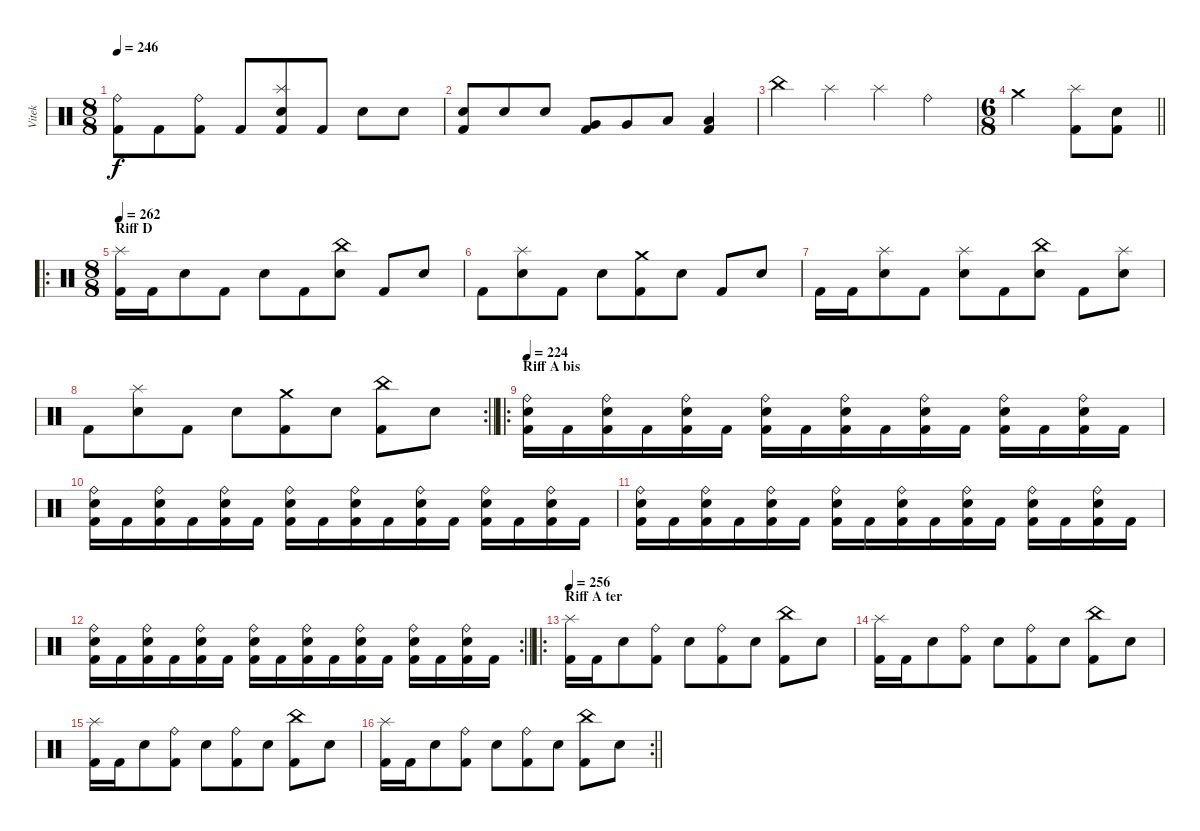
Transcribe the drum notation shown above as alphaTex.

\track ("Vitek" "Vitek") {instrument percussion}
\staff {score}
\articulation defaults
\ts (8 8)
\tempo 246
\clef neutral
\ks c
("Ride (bell)" "Kick (hit) 2").8{dy f} "Kick (hit) 2".8 ("Ride (bell)" "Kick (hit) 2").8 "Kick (hit) 2".8 ("Splash (hit)" "Electric Snare (hit)" "Kick (hit) 2").8 "Kick (hit) 2".8 "Electric Snare (hit)".8 "Electric Snare (hit)".8 |
("Electric Snare (hit)" "Kick (hit) 2").8 "Electric Snare (hit)".8 "Electric Snare (hit)".8 ("Very Low Tom (hit)" "Kick (hit) 2").8 "Very Low Tom (hit)".8 "Low Floor Tom (hit)".8 ("Low Floor Tom (hit)" "Kick (hit) 2").4 |
"China (hit)".4 "Splash (hit)".4 "Splash (hit)".4 "Ride (bell)".4 |
\ts (6 8)
\barLineRight lightlight "Crash medium (hit)".2
("Splash (hit)" "Kick (hit) 2").8 ("Electric Snare (hit)" "Kick (hit) 2").8 |
\ro
\ts (8 8)
\section ("" "Riff D")
\tempo 262
("Splash (hit)" "Kick (hit) 2").16 "Kick (hit) 2".16 "Electric Snare (hit)".8 "Kick (hit) 2".8 "Electric Snare (hit)".8 "Kick (hit) 2".8 ("China (hit)" "Electric Snare (hit)").8 "Kick (hit) 2".8 "Electric Snare (hit)".8 |
"Kick (hit) 2".8 ("Splash (hit)" "Electric Snare (hit)").8 "Kick (hit) 2".8 "Electric Snare (hit)".8 ("Crash medium (hit)" "Kick (hit) 2").8 "Electric Snare (hit)".8 "Kick (hit) 2".8 "Electric Snare (hit)".8 |
"Kick (hit) 2".16 "Kick (hit) 2".16 ("Splash (hit)" "Electric Snare (hit)").8 "Kick (hit) 2".8 ("Splash (hit)" "Electric Snare (hit)").8 "Kick (hit) 2".8 ("China (hit)" "Electric Snare (hit)").8 "Kick (hit) 2".8 ("Splash (hit)" "Electric Snare (hit)").8 |
\rc 2
\barLineRight lightlight "Kick (hit) 2".8
("Splash (hit)" "Electric Snare (hit)").8 "Kick (hit) 2".8 "Electric Snare (hit)".8 ("Crash medium (hit)" "Kick (hit) 2").8 "Electric Snare (hit)".8 ("China (hit)" "Kick (hit) 2").8 "Electric Snare (hit)".8 |
\ro
\section ("" "Riff A bis")
\tempo 224
("Ride (bell)" "Electric Snare (hit)" "Kick (hit) 2").16 "Kick (hit) 2".16 ("Ride (bell)" "Electric Snare (hit)" "Kick (hit) 2").16 "Kick (hit) 2".16 ("Ride (bell)" "Electric Snare (hit)" "Kick (hit) 2").16 "Kick (hit) 2".16 ("Ride (bell)" "Electric Snare (hit)" "Kick (hit) 2").16 "Kick (hit) 2".16 ("Ride (bell)" "Electric Snare (hit)" "Kick (hit) 2").16 "Kick (hit) 2".16 ("Ride (bell)" "Electric Snare (hit)" "Kick (hit) 2").16 "Kick (hit) 2".16 ("Ride (bell)" "Electric Snare (hit)" "Kick (hit) 2").16 "Kick (hit) 2".16 ("Ride (bell)" "Electric Snare (hit)" "Kick (hit) 2").16 "Kick (hit) 2".16 |
("Ride (bell)" "Electric Snare (hit)" "Kick (hit) 2").16 "Kick (hit) 2".16 ("Ride (bell)" "Electric Snare (hit)" "Kick (hit) 2").16 "Kick (hit) 2".16 ("Ride (bell)" "Electric Snare (hit)" "Kick (hit) 2").16 "Kick (hit) 2".16 ("Ride (bell)" "Electric Snare (hit)" "Kick (hit) 2").16 "Kick (hit) 2".16 ("Ride (bell)" "Electric Snare (hit)" "Kick (hit) 2").16 "Kick (hit) 2".16 ("Ride (bell)" "Electric Snare (hit)" "Kick (hit) 2").16 "Kick (hit) 2".16 ("Ride (bell)" "Electric Snare (hit)" "Kick (hit) 2").16 "Kick (hit) 2".16 ("Ride (bell)" "Electric Snare (hit)" "Kick (hit) 2").16 "Kick (hit) 2".16 |
("Ride (bell)" "Electric Snare (hit)" "Kick (hit) 2").16 "Kick (hit) 2".16 ("Ride (bell)" "Electric Snare (hit)" "Kick (hit) 2").16 "Kick (hit) 2".16 ("Ride (bell)" "Electric Snare (hit)" "Kick (hit) 2").16 "Kick (hit) 2".16 ("Ride (bell)" "Electric Snare (hit)" "Kick (hit) 2").16 "Kick (hit) 2".16 ("Ride (bell)" "Electric Snare (hit)" "Kick (hit) 2").16 "Kick (hit) 2".16 ("Ride (bell)" "Electric Snare (hit)" "Kick (hit) 2").16 "Kick (hit) 2".16 ("Ride (bell)" "Electric Snare (hit)" "Kick (hit) 2").16 "Kick (hit) 2".16 ("Ride (bell)" "Electric Snare (hit)" "Kick (hit) 2").16 "Kick (hit) 2".16 |
\rc 2
\barLineRight lightlight
("Ride (bell)" "Electric Snare (hit)" "Kick (hit) 2").16 "Kick (hit) 2".16 ("Ride (bell)" "Electric Snare (hit)" "Kick (hit) 2").16 "Kick (hit) 2".16 ("Ride (bell)" "Electric Snare (hit)" "Kick (hit) 2").16 "Kick (hit) 2".16 ("Ride (bell)" "Electric Snare (hit)" "Kick (hit) 2").16 "Kick (hit) 2".16 ("Ride (bell)" "Electric Snare (hit)" "Kick (hit) 2").16 "Kick (hit) 2".16 ("Ride (bell)" "Electric Snare (hit)" "Kick (hit) 2").16 "Kick (hit) 2".16 ("Ride (bell)" "Electric Snare (hit)" "Kick (hit) 2").16 "Kick (hit) 2".16 ("Ride (bell)" "Electric Snare (hit)" "Kick (hit) 2").16 "Kick (hit) 2".16 |
\ro
\section ("" "Riff A ter")
\tempo 256
("Splash (hit)" "Kick (hit) 2").16 "Kick (hit) 2".16 "Electric Snare (hit)".8 ("Ride (bell)" "Kick (hit) 2").8 "Electric Snare (hit)".8 ("Ride (bell)" "Kick (hit) 2").8 "Electric Snare (hit)".8 ("China (hit)" "Kick (hit) 2").8 "Electric Snare (hit)".8 |
("Splash (hit)" "Kick (hit) 2").16 "Kick (hit) 2".16 "Electric Snare (hit)".8 ("Ride (bell)" "Kick (hit) 2").8 "Electric Snare (hit)".8 ("Ride (bell)" "Kick (hit) 2").8 "Electric Snare (hit)".8 ("China (hit)" "Kick (hit) 2").8 "Electric Snare (hit)".8 |
("Splash (hit)" "Kick (hit) 2").16 "Kick (hit) 2".16 "Electric Snare (hit)".8 ("Ride (bell)" "Kick (hit) 2").8 "Electric Snare (hit)".8 ("Ride (bell)" "Kick (hit) 2").8 "Electric Snare (hit)".8 ("China (hit)" "Kick (hit) 2").8 "Electric Snare (hit)".8 |
\rc 2
\barLineRight lightlight
("Splash (hit)" "Kick (hit) 2").16 "Kick (hit) 2".16 "Electric Snare (hit)".8 ("Ride (bell)" "Kick (hit) 2").8 "Electric Snare (hit)".8 ("Ride (bell)" "Kick (hit) 2").8 "Electric Snare (hit)".8 ("China (hit)" "Kick (hit) 2").8 "Electric Snare (hit)".8
